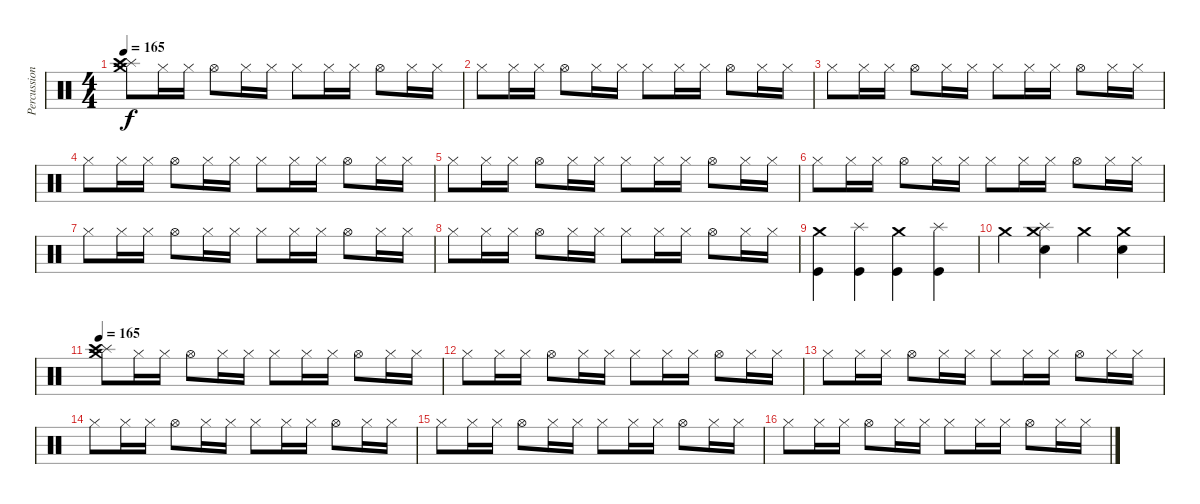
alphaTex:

\track ("Percussion" "Percussion") {instrument percussion}
\staff {score}
\articulation defaults
\ts (4 4)
\tempo 165
\clef neutral
\ks c
("Splash (hit)" "Crash medium (hit)" "Crash high (hit)").8{dy f} "Hi-Hat (closed)".16 "Hi-Hat (closed)".16 "Hi-Hat (open)".8 "Hi-Hat (closed)".16 "Hi-Hat (closed)".16 "Hi-Hat (closed)".8 "Hi-Hat (closed)".16 "Hi-Hat (closed)".16 "Hi-Hat (open)".8 "Hi-Hat (closed)".16 "Hi-Hat (closed)".16 |
"Hi-Hat (closed)".8 "Hi-Hat (closed)".16 "Hi-Hat (closed)".16 "Hi-Hat (open)".8 "Hi-Hat (closed)".16 "Hi-Hat (closed)".16 "Hi-Hat (closed)".8 "Hi-Hat (closed)".16 "Hi-Hat (closed)".16 "Hi-Hat (open)".8 "Hi-Hat (closed)".16 "Hi-Hat (closed)".16 |
"Hi-Hat (closed)".8 "Hi-Hat (closed)".16 "Hi-Hat (closed)".16 "Hi-Hat (open)".8 "Hi-Hat (closed)".16 "Hi-Hat (closed)".16 "Hi-Hat (closed)".8 "Hi-Hat (closed)".16 "Hi-Hat (closed)".16 "Hi-Hat (open)".8 "Hi-Hat (closed)".16 "Hi-Hat (closed)".16 |
"Hi-Hat (closed)".8 "Hi-Hat (closed)".16 "Hi-Hat (closed)".16 "Hi-Hat (open)".8 "Hi-Hat (closed)".16 "Hi-Hat (closed)".16 "Hi-Hat (closed)".8 "Hi-Hat (closed)".16 "Hi-Hat (closed)".16 "Hi-Hat (open)".8 "Hi-Hat (closed)".16 "Hi-Hat (closed)".16 |
"Hi-Hat (closed)".8 "Hi-Hat (closed)".16 "Hi-Hat (closed)".16 "Hi-Hat (open)".8 "Hi-Hat (closed)".16 "Hi-Hat (closed)".16 "Hi-Hat (closed)".8 "Hi-Hat (closed)".16 "Hi-Hat (closed)".16 "Hi-Hat (open)".8 "Hi-Hat (closed)".16 "Hi-Hat (closed)".16 |
"Hi-Hat (closed)".8 "Hi-Hat (closed)".16 "Hi-Hat (closed)".16 "Hi-Hat (open)".8 "Hi-Hat (closed)".16 "Hi-Hat (closed)".16 "Hi-Hat (closed)".8 "Hi-Hat (closed)".16 "Hi-Hat (closed)".16 "Hi-Hat (open)".8 "Hi-Hat (closed)".16 "Hi-Hat (closed)".16 |
"Hi-Hat (closed)".8 "Hi-Hat (closed)".16 "Hi-Hat (closed)".16 "Hi-Hat (open)".8 "Hi-Hat (closed)".16 "Hi-Hat (closed)".16 "Hi-Hat (closed)".8 "Hi-Hat (closed)".16 "Hi-Hat (closed)".16 "Hi-Hat (open)".8 "Hi-Hat (closed)".16 "Hi-Hat (closed)".16 |
"Hi-Hat (closed)".8 "Hi-Hat (closed)".16 "Hi-Hat (closed)".16 "Hi-Hat (open)".8 "Hi-Hat (closed)".16 "Hi-Hat (closed)".16 "Hi-Hat (closed)".8 "Hi-Hat (closed)".16 "Hi-Hat (closed)".16 "Hi-Hat (open)".8 "Hi-Hat (closed)".16 "Hi-Hat (closed)".16 |
("Crash medium (hit)" "Kick (hit)").4 ("Splash (hit)" "Kick (hit)").4 ("Crash medium (hit)" "Kick (hit)").4 ("Splash (hit)" "Kick (hit)").4 |
"Crash medium (hit)".4 ("Crash medium (hit)" "Splash (hit)" "Snare (hit) 2").4 "Crash medium (hit)".4 ("Crash medium (hit)" "Snare (hit) 2").4 |
\tempo 165
("Splash (hit)" "Crash medium (hit)" "Crash high (hit)").8 "Hi-Hat (closed)".16 "Hi-Hat (closed)".16 "Hi-Hat (open)".8 "Hi-Hat (closed)".16 "Hi-Hat (closed)".16 "Hi-Hat (closed)".8 "Hi-Hat (closed)".16 "Hi-Hat (closed)".16 "Hi-Hat (open)".8 "Hi-Hat (closed)".16 "Hi-Hat (closed)".16 |
"Hi-Hat (closed)".8 "Hi-Hat (closed)".16 "Hi-Hat (closed)".16 "Hi-Hat (open)".8 "Hi-Hat (closed)".16 "Hi-Hat (closed)".16 "Hi-Hat (closed)".8 "Hi-Hat (closed)".16 "Hi-Hat (closed)".16 "Hi-Hat (open)".8 "Hi-Hat (closed)".16 "Hi-Hat (closed)".16 |
"Hi-Hat (closed)".8 "Hi-Hat (closed)".16 "Hi-Hat (closed)".16 "Hi-Hat (open)".8 "Hi-Hat (closed)".16 "Hi-Hat (closed)".16 "Hi-Hat (closed)".8 "Hi-Hat (closed)".16 "Hi-Hat (closed)".16 "Hi-Hat (open)".8 "Hi-Hat (closed)".16 "Hi-Hat (closed)".16 |
"Hi-Hat (closed)".8 "Hi-Hat (closed)".16 "Hi-Hat (closed)".16 "Hi-Hat (open)".8 "Hi-Hat (closed)".16 "Hi-Hat (closed)".16 "Hi-Hat (closed)".8 "Hi-Hat (closed)".16 "Hi-Hat (closed)".16 "Hi-Hat (open)".8 "Hi-Hat (closed)".16 "Hi-Hat (closed)".16 |
"Hi-Hat (closed)".8 "Hi-Hat (closed)".16 "Hi-Hat (closed)".16 "Hi-Hat (open)".8 "Hi-Hat (closed)".16 "Hi-Hat (closed)".16 "Hi-Hat (closed)".8 "Hi-Hat (closed)".16 "Hi-Hat (closed)".16 "Hi-Hat (open)".8 "Hi-Hat (closed)".16 "Hi-Hat (closed)".16 |
"Hi-Hat (closed)".8 "Hi-Hat (closed)".16 "Hi-Hat (closed)".16 "Hi-Hat (open)".8 "Hi-Hat (closed)".16 "Hi-Hat (closed)".16 "Hi-Hat (closed)".8 "Hi-Hat (closed)".16 "Hi-Hat (closed)".16 "Hi-Hat (open)".8 "Hi-Hat (closed)".16 "Hi-Hat (closed)".16
